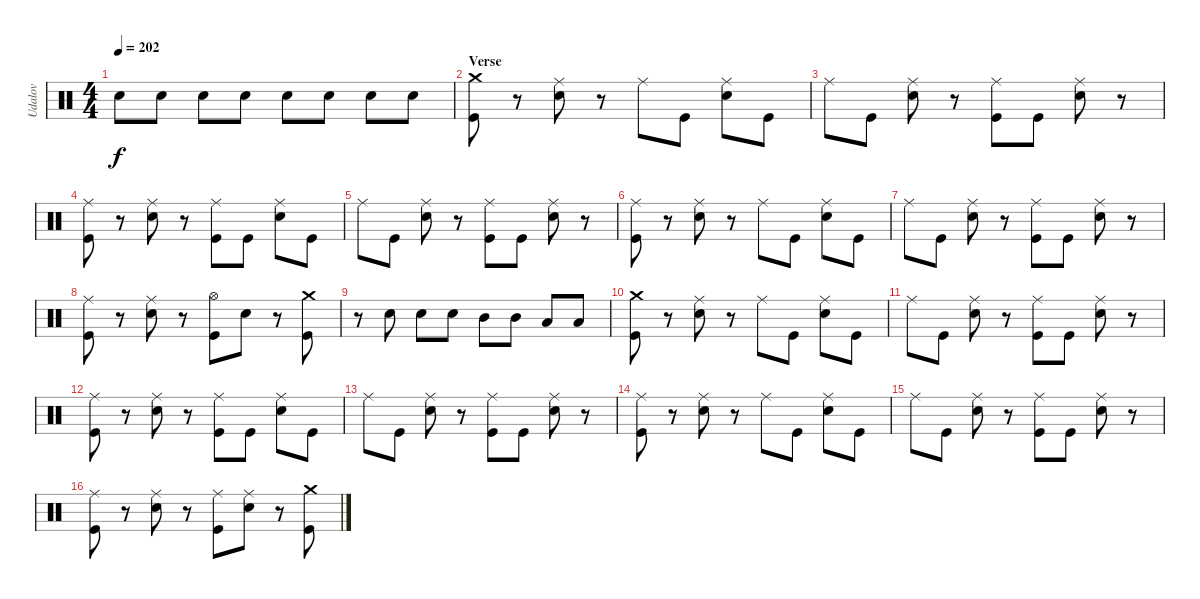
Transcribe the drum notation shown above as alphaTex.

\track ("Udalov" "Udalov") {instrument percussion}
\staff {score}
\articulation defaults
\ts (4 4)
\tempo 202
\clef neutral
\ks c "Electric Snare (hit)".8{dy f} "Electric Snare (hit)".8 "Electric Snare (hit)".8 "Electric Snare (hit)".8 "Electric Snare (hit)".8 "Electric Snare (hit)".8 "Electric Snare (hit)".8 "Electric Snare (hit)".8
|
\section ("" "Verse")
("Kick (hit)" "Crash medium (hit)").8 r.8 ("Electric Snare (hit)" "Ride (middle)").8 r.8 "Ride (middle)".8 "Kick (hit)".8 ("Electric Snare (hit)" "Ride (middle)").8 "Kick (hit)".8 |
"Ride (middle)".8 "Kick (hit)".8 ("Electric Snare (hit)" "Ride (middle)").8 r.8 ("Kick (hit)" "Ride (middle)").8 "Kick (hit)".8 ("Electric Snare (hit)" "Ride (middle)").8 r.8 |
("Kick (hit)" "Ride (middle)").8 r.8 ("Electric Snare (hit)" "Ride (middle)").8 r.8 ("Kick (hit)" "Ride (middle)").8 "Kick (hit)".8 ("Electric Snare (hit)" "Ride (middle)").8 "Kick (hit)".8 |
"Ride (middle)".8 "Kick (hit)".8 ("Electric Snare (hit)" "Ride (middle)").8 r.8 ("Kick (hit)" "Ride (middle)").8 "Kick (hit)".8 ("Electric Snare (hit)" "Ride (middle)").8 r.8 |
("Kick (hit)" "Ride (middle)").8 r.8 ("Electric Snare (hit)" "Ride (middle)").8 r.8 "Ride (middle)".8 "Kick (hit)".8 ("Electric Snare (hit)" "Ride (middle)").8 "Kick (hit)".8 |
"Ride (middle)".8 "Kick (hit)".8 ("Electric Snare (hit)" "Ride (middle)").8 r.8 ("Kick (hit)" "Ride (middle)").8 "Kick (hit)".8 ("Electric Snare (hit)" "Ride (middle)").8 r.8 |
("Kick (hit)" "Ride (middle)").8 r.8 ("Electric Snare (hit)" "Ride (middle)").8 r.8 ("Kick (hit)" "Hi-Hat (open)").8 "Electric Snare (hit)".8 r.8 ("Kick (hit)" "Crash medium (hit)").8 |
r.8 "Electric Snare (hit)".8 "Electric Snare (hit)".8 "Electric Snare (hit)".8 "Mid Tom (hit)".8 "Mid Tom (hit)".8 "Low Tom (hit)".8 "Low Tom (hit)".8 |
("Kick (hit)" "Crash medium (hit)").8 r.8 ("Electric Snare (hit)" "Ride (middle)").8 r.8 "Ride (middle)".8 "Kick (hit)".8 ("Electric Snare (hit)" "Ride (middle)").8 "Kick (hit)".8 |
"Ride (middle)".8 "Kick (hit)".8 ("Electric Snare (hit)" "Ride (middle)").8 r.8 ("Kick (hit)" "Ride (middle)").8 "Kick (hit)".8 ("Electric Snare (hit)" "Ride (middle)").8 r.8 |
("Kick (hit)" "Ride (middle)").8 r.8 ("Electric Snare (hit)" "Ride (middle)").8 r.8 ("Kick (hit)" "Ride (middle)").8 "Kick (hit)".8 ("Electric Snare (hit)" "Ride (middle)").8 "Kick (hit)".8 |
"Ride (middle)".8 "Kick (hit)".8 ("Electric Snare (hit)" "Ride (middle)").8 r.8 ("Kick (hit)" "Ride (middle)").8 "Kick (hit)".8 ("Electric Snare (hit)" "Ride (middle)").8 r.8 |
("Kick (hit)" "Ride (middle)").8 r.8 ("Electric Snare (hit)" "Ride (middle)").8 r.8 "Ride (middle)".8 "Kick (hit)".8 ("Electric Snare (hit)" "Ride (middle)").8 "Kick (hit)".8 |
"Ride (middle)".8 "Kick (hit)".8 ("Electric Snare (hit)" "Ride (middle)").8 r.8 ("Kick (hit)" "Ride (middle)").8 "Kick (hit)".8 ("Electric Snare (hit)" "Ride (middle)").8 r.8 |
("Kick (hit)" "Ride (middle)").8 r.8 ("Electric Snare (hit)" "Ride (middle)").8 r.8 ("Kick (hit)" "Ride (middle)").8 ("Electric Snare (hit)" "Ride (middle)").8 r.8 ("Kick (hit)" "Crash medium (hit)").8
